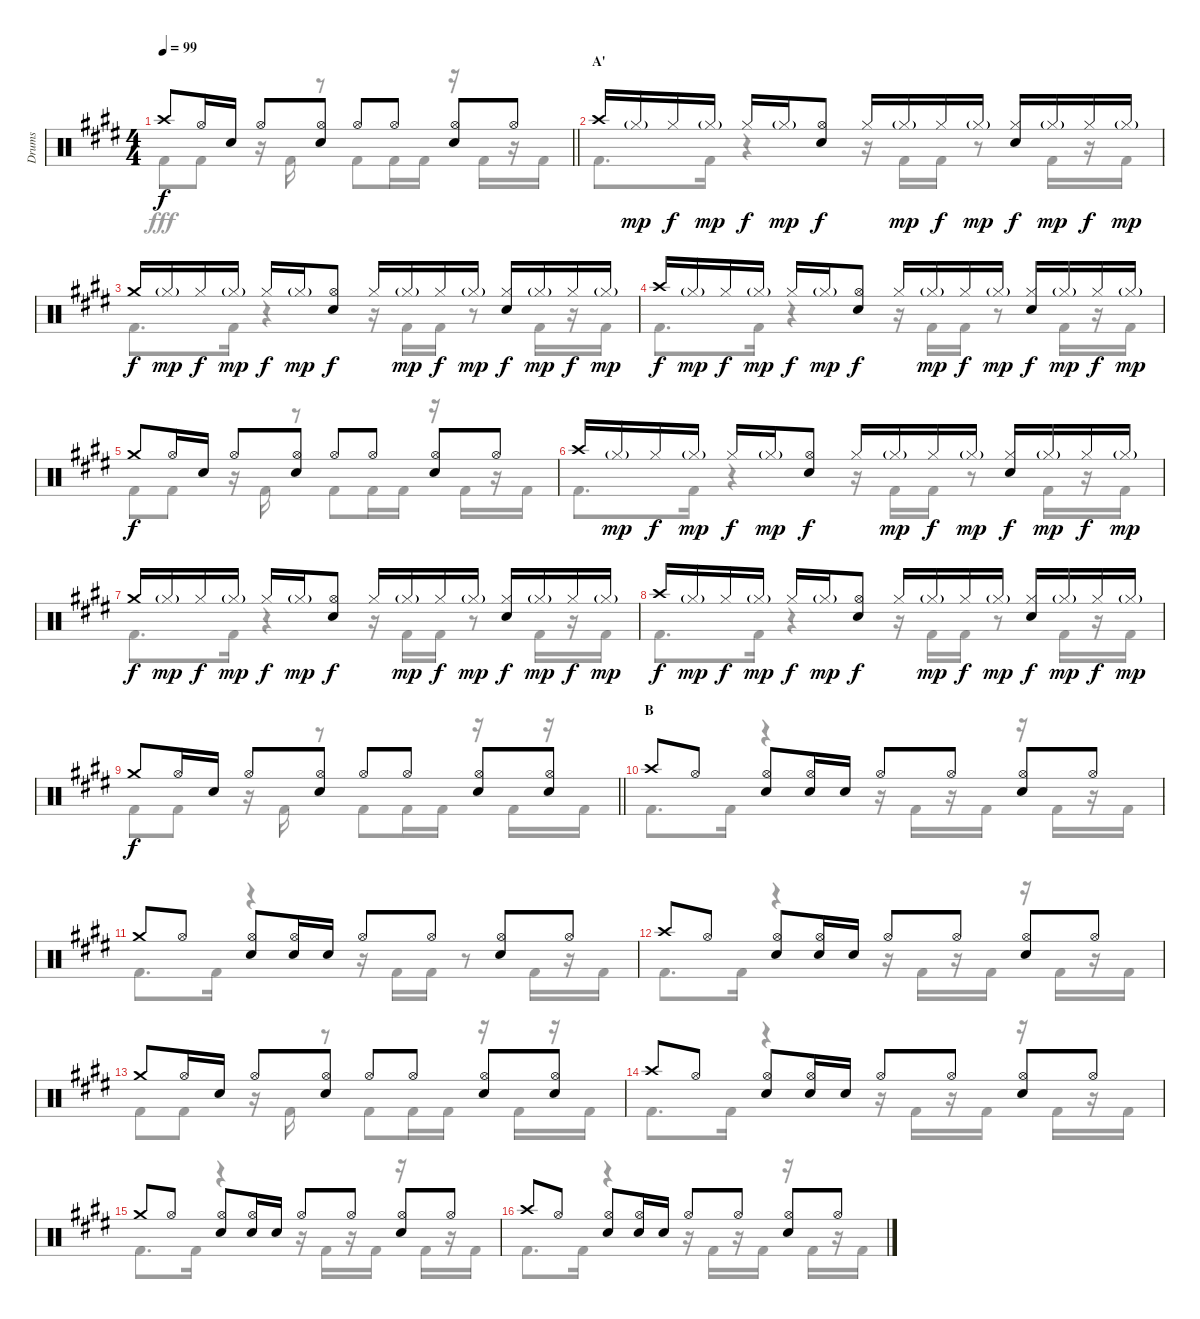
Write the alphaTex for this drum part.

\track ("Drums" "Drums") {instrument percussion}
\staff {score}
\articulation defaults
\voice
\ts (4 4)
\tempo 99
\clef neutral
\barLineRight lightlight
\ks e "Crash high (hit)".8{dy f} "Hi-Hat (open)".16 "Snare (hit) 2".16 "Hi-Hat (open)".8
("Hi-Hat (open)" "Snare (hit) 2").8 "Hi-Hat (open)".8 "Hi-Hat (open)".8 ("Hi-Hat (open)" "Snare (hit) 2").8 "Hi-Hat (open)".8 |
\section ("" "A'")
"Crash high (hit)".16 "Hi-Hat (closed)"{g}.16{dy mp} "Hi-Hat (closed)".16{dy f} "Hi-Hat (closed)"{g}.16{dy mp} "Hi-Hat (closed)".16{dy f} "Hi-Hat (closed)"{g}.16{dy mp} ("Hi-Hat (open)" "Snare (hit) 2").8{dy f} "Hi-Hat (closed)".16 "Hi-Hat (closed)"{g}.16{dy mp} "Hi-Hat (closed)".16{dy f} "Hi-Hat (closed)"{g}.16{dy mp} ("Hi-Hat (closed)" "Snare (hit) 2").16{dy f} "Hi-Hat (closed)"{g}.16{dy mp} "Hi-Hat (closed)".16{dy f} "Hi-Hat (closed)"{g}.16{dy mp} |
"Crash medium (hit)".16{dy f} "Hi-Hat (closed)"{g}.16{dy mp} "Hi-Hat (closed)".16{dy f} "Hi-Hat (closed)"{g}.16{dy mp} "Hi-Hat (closed)".16{dy f} "Hi-Hat (closed)"{g}.16{dy mp} ("Hi-Hat (open)" "Snare (hit) 2").8{dy f} "Hi-Hat (closed)".16 "Hi-Hat (closed)"{g}.16{dy mp} "Hi-Hat (closed)".16{dy f} "Hi-Hat (closed)"{g}.16{dy mp} ("Hi-Hat (closed)" "Snare (hit) 2").16{dy f} "Hi-Hat (closed)"{g}.16{dy mp} "Hi-Hat (closed)".16{dy f} "Hi-Hat (closed)"{g}.16{dy mp} |
"Crash high (hit)".16{dy f} "Hi-Hat (closed)"{g}.16{dy mp} "Hi-Hat (closed)".16{dy f} "Hi-Hat (closed)"{g}.16{dy mp} "Hi-Hat (closed)".16{dy f} "Hi-Hat (closed)"{g}.16{dy mp} ("Hi-Hat (open)" "Snare (hit) 2").8{dy f} "Hi-Hat (closed)".16 "Hi-Hat (closed)"{g}.16{dy mp} "Hi-Hat (closed)".16{dy f} "Hi-Hat (closed)"{g}.16{dy mp} ("Hi-Hat (closed)" "Snare (hit) 2").16{dy f} "Hi-Hat (closed)"{g}.16{dy mp} "Hi-Hat (closed)".16{dy f} "Hi-Hat (closed)"{g}.16{dy mp} |
"Crash medium (hit)".8{dy f} "Hi-Hat (open)".16 "Snare (hit) 2".16 "Hi-Hat (open)".8 ("Hi-Hat (open)" "Snare (hit) 2").8 "Hi-Hat (open)".8 "Hi-Hat (open)".8 ("Hi-Hat (open)" "Snare (hit) 2").8 "Hi-Hat (open)".8 |
"Crash high (hit)".16 "Hi-Hat (closed)"{g}.16{dy mp} "Hi-Hat (closed)".16{dy f} "Hi-Hat (closed)"{g}.16{dy mp} "Hi-Hat (closed)".16{dy f} "Hi-Hat (closed)"{g}.16{dy mp} ("Hi-Hat (open)" "Snare (hit) 2").8{dy f} "Hi-Hat (closed)".16 "Hi-Hat (closed)"{g}.16{dy mp} "Hi-Hat (closed)".16{dy f} "Hi-Hat (closed)"{g}.16{dy mp} ("Hi-Hat (closed)" "Snare (hit) 2").16{dy f} "Hi-Hat (closed)"{g}.16{dy mp} "Hi-Hat (closed)".16{dy f} "Hi-Hat (closed)"{g}.16{dy mp} |
"Crash medium (hit)".16{dy f} "Hi-Hat (closed)"{g}.16{dy mp} "Hi-Hat (closed)".16{dy f} "Hi-Hat (closed)"{g}.16{dy mp} "Hi-Hat (closed)".16{dy f} "Hi-Hat (closed)"{g}.16{dy mp} ("Hi-Hat (open)" "Snare (hit) 2").8{dy f} "Hi-Hat (closed)".16 "Hi-Hat (closed)"{g}.16{dy mp} "Hi-Hat (closed)".16{dy f} "Hi-Hat (closed)"{g}.16{dy mp} ("Hi-Hat (closed)" "Snare (hit) 2").16{dy f} "Hi-Hat (closed)"{g}.16{dy mp} "Hi-Hat (closed)".16{dy f} "Hi-Hat (closed)"{g}.16{dy mp} |
"Crash high (hit)".16{dy f} "Hi-Hat (closed)"{g}.16{dy mp} "Hi-Hat (closed)".16{dy f} "Hi-Hat (closed)"{g}.16{dy mp} "Hi-Hat (closed)".16{dy f} "Hi-Hat (closed)"{g}.16{dy mp} ("Hi-Hat (open)" "Snare (hit) 2").8{dy f} "Hi-Hat (closed)".16 "Hi-Hat (closed)"{g}.16{dy mp} "Hi-Hat (closed)".16{dy f} "Hi-Hat (closed)"{g}.16{dy mp} ("Hi-Hat (closed)" "Snare (hit) 2").16{dy f} "Hi-Hat (closed)"{g}.16{dy mp} "Hi-Hat (closed)".16{dy f} "Hi-Hat (closed)"{g}.16{dy mp} |
\barLineRight lightlight "Crash medium (hit)".8{dy f} "Hi-Hat (open)".16 "Snare (hit) 2".16 "Hi-Hat (open)".8
("Hi-Hat (open)" "Snare (hit) 2").8 "Hi-Hat (open)".8 "Hi-Hat (open)".8 ("Hi-Hat (open)" "Snare (hit) 2").8 ("Hi-Hat (open)" "Snare (hit) 2").8 |
\section ("" "B")
"Crash high (hit)".8 "Hi-Hat (open)".8 ("Hi-Hat (open)" "Snare (hit) 2").8 ("Hi-Hat (open)" "Snare (hit) 2").16 "Snare (hit) 2".16 "Hi-Hat (open)".8 "Hi-Hat (open)".8 ("Hi-Hat (open)" "Snare (hit) 2").8 "Hi-Hat (open)".8 |
"Crash medium (hit)".8 "Hi-Hat (open)".8 ("Hi-Hat (open)" "Snare (hit) 2").8 ("Hi-Hat (open)" "Snare (hit) 2").16 "Snare (hit) 2".16 "Hi-Hat (open)".8 "Hi-Hat (open)".8 ("Hi-Hat (open)" "Snare (hit) 2").8 "Hi-Hat (open)".8 |
"Crash high (hit)".8 "Hi-Hat (open)".8 ("Hi-Hat (open)" "Snare (hit) 2").8 ("Hi-Hat (open)" "Snare (hit) 2").16 "Snare (hit) 2".16 "Hi-Hat (open)".8 "Hi-Hat (open)".8 ("Hi-Hat (open)" "Snare (hit) 2").8 "Hi-Hat (open)".8 |
"Crash medium (hit)".8 "Hi-Hat (open)".16 "Snare (hit) 2".16 "Hi-Hat (open)".8 ("Hi-Hat (open)" "Snare (hit) 2").8 "Hi-Hat (open)".8 "Hi-Hat (open)".8 ("Hi-Hat (open)" "Snare (hit) 2").8 ("Hi-Hat (open)" "Snare (hit) 2").8 |
"Crash high (hit)".8 "Hi-Hat (open)".8 ("Hi-Hat (open)" "Snare (hit) 2").8 ("Hi-Hat (open)" "Snare (hit) 2").16 "Snare (hit) 2".16 "Hi-Hat (open)".8 "Hi-Hat (open)".8 ("Hi-Hat (open)" "Snare (hit) 2").8 "Hi-Hat (open)".8 |
"Crash medium (hit)".8 "Hi-Hat (open)".8 ("Hi-Hat (open)" "Snare (hit) 2").8 ("Hi-Hat (open)" "Snare (hit) 2").16 "Snare (hit) 2".16 "Hi-Hat (open)".8 "Hi-Hat (open)".8 ("Hi-Hat (open)" "Snare (hit) 2").8 "Hi-Hat (open)".8 |
"Crash high (hit)".8 "Hi-Hat (open)".8 ("Hi-Hat (open)" "Snare (hit) 2").8 ("Hi-Hat (open)" "Snare (hit) 2").16 "Snare (hit) 2".16 "Hi-Hat (open)".8 "Hi-Hat (open)".8 ("Hi-Hat (open)" "Snare (hit) 2").8 "Hi-Hat (open)".8
\voice
\clef neutral
\ottava regular
\simile none
\barLineRight lightlight
\ks e "Kick (hit) 2".8{dy fff} "Kick (hit) 2".8
r.16 "Kick (hit) 2".16 r.8 "Kick (hit) 2".8 "Kick (hit) 2".16 "Kick (hit) 2".16 r.16 "Kick (hit) 2".16 r.16 "Kick (hit) 2".16 |
"Kick (hit) 2".8{d} "Kick (hit) 2".16 r.4 r.16 "Kick (hit) 2".16 "Kick (hit) 2".16 r.8 "Kick (hit) 2".16 r.16 "Kick (hit) 2".16 |
"Kick (hit) 2".8{d} "Kick (hit) 2".16 r.4 r.16 "Kick (hit) 2".16 "Kick (hit) 2".16 r.8 "Kick (hit) 2".16 r.16 "Kick (hit) 2".16 |
"Kick (hit) 2".8{d} "Kick (hit) 2".16 r.4 r.16 "Kick (hit) 2".16 "Kick (hit) 2".16 r.8 "Kick (hit) 2".16 r.16 "Kick (hit) 2".16 |
"Kick (hit) 2".8 "Kick (hit) 2".8 r.16 "Kick (hit) 2".16 r.8 "Kick (hit) 2".8 "Kick (hit) 2".16 "Kick (hit) 2".16 r.16 "Kick (hit) 2".16 r.16 "Kick (hit) 2".16 |
"Kick (hit) 2".8{d} "Kick (hit) 2".16 r.4 r.16 "Kick (hit) 2".16 "Kick (hit) 2".16 r.8 "Kick (hit) 2".16 r.16 "Kick (hit) 2".16 |
"Kick (hit) 2".8{d} "Kick (hit) 2".16 r.4 r.16 "Kick (hit) 2".16 "Kick (hit) 2".16 r.8 "Kick (hit) 2".16 r.16 "Kick (hit) 2".16 |
"Kick (hit) 2".8{d} "Kick (hit) 2".16 r.4 r.16 "Kick (hit) 2".16 "Kick (hit) 2".16 r.8 "Kick (hit) 2".16 r.16 "Kick (hit) 2".16 |
\barLineRight lightlight "Kick (hit) 2".8 "Kick (hit) 2".8
r.16 "Kick (hit) 2".16 r.8 "Kick (hit) 2".8 "Kick (hit) 2".16 "Kick (hit) 2".16 r.16 "Kick (hit) 2".16 r.16 "Kick (hit) 2".16 |
"Kick (hit) 2".8{d} "Kick (hit) 2".16 r.4 r.16 "Kick (hit) 2".16 r.16 "Kick (hit) 2".16 r.16 "Kick (hit) 2".16 r.16 "Kick (hit) 2".16 |
"Kick (hit) 2".8{d} "Kick (hit) 2".16 r.4 r.16 "Kick (hit) 2".16 "Kick (hit) 2".16 r.8 "Kick (hit) 2".16 r.16 "Kick (hit) 2".16 |
"Kick (hit) 2".8{d} "Kick (hit) 2".16 r.4 r.16 "Kick (hit) 2".16 r.16 "Kick (hit) 2".16 r.16 "Kick (hit) 2".16 r.16 "Kick (hit) 2".16 |
"Kick (hit) 2".8 "Kick (hit) 2".8 r.16 "Kick (hit) 2".16 r.8 "Kick (hit) 2".8 "Kick (hit) 2".16 "Kick (hit) 2".16 r.16 "Kick (hit) 2".16 r.16 "Kick (hit) 2".16 |
"Kick (hit) 2".8{d} "Kick (hit) 2".16 r.4 r.16 "Kick (hit) 2".16 r.16 "Kick (hit) 2".16 r.16 "Kick (hit) 2".16 r.16 "Kick (hit) 2".16 |
"Kick (hit) 2".8{d} "Kick (hit) 2".16 r.4 r.16 "Kick (hit) 2".16 r.16 "Kick (hit) 2".16 r.16 "Kick (hit) 2".16 r.16 "Kick (hit) 2".16 |
"Kick (hit) 2".8{d} "Kick (hit) 2".16 r.4 r.16 "Kick (hit) 2".16 r.16 "Kick (hit) 2".16 r.16 "Kick (hit) 2".16 r.16 "Kick (hit) 2".16
